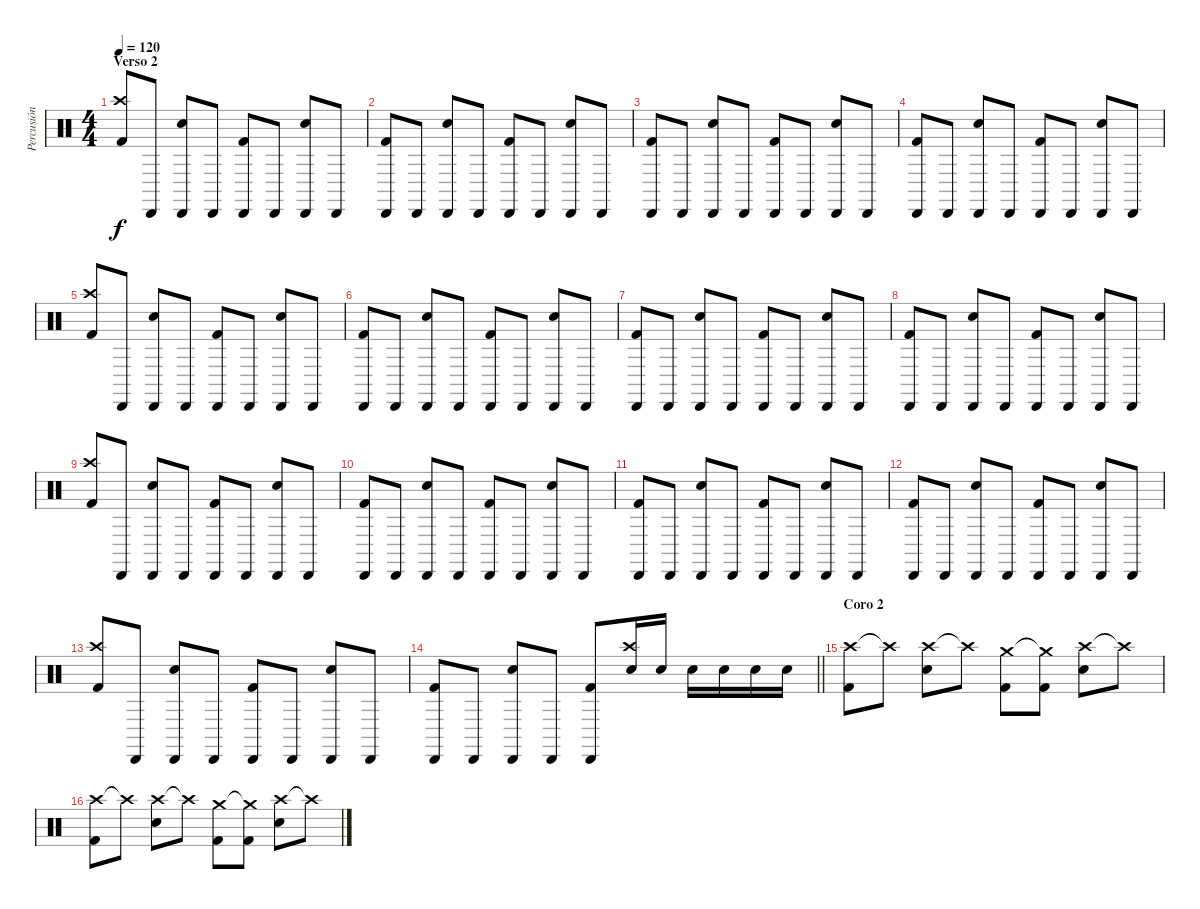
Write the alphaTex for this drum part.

\track ("Percusión" "Percusión") {instrument percussion}
\staff {score}
\articulation defaults
\ts (4 4)
\section ("" "Verso 2")
\tempo 120
\clef neutral
\ks c
("Crash high (hit)" "Kick (hit) 2").8{dy f} "Cabasa (hit)".8 ("Cabasa (hit)" "Snare (hit) 2").8 "Cabasa (hit)".8 ("Cabasa (hit)" "Kick (hit) 2").8 "Cabasa (hit)".8 ("Cabasa (hit)" "Snare (hit) 2").8 "Cabasa (hit)".8 |
("Cabasa (hit)" "Kick (hit) 2").8 "Cabasa (hit)".8 ("Cabasa (hit)" "Snare (hit) 2").8 "Cabasa (hit)".8 ("Cabasa (hit)" "Kick (hit) 2").8 "Cabasa (hit)".8 ("Cabasa (hit)" "Snare (hit) 2").8 "Cabasa (hit)".8 |
("Cabasa (hit)" "Kick (hit) 2").8 "Cabasa (hit)".8 ("Cabasa (hit)" "Snare (hit) 2").8 "Cabasa (hit)".8 ("Cabasa (hit)" "Kick (hit) 2").8 "Cabasa (hit)".8 ("Cabasa (hit)" "Snare (hit) 2").8 "Cabasa (hit)".8 |
("Cabasa (hit)" "Kick (hit) 2").8 "Cabasa (hit)".8 ("Cabasa (hit)" "Snare (hit) 2").8 "Cabasa (hit)".8 ("Cabasa (hit)" "Kick (hit) 2").8 "Cabasa (hit)".8 ("Cabasa (hit)" "Snare (hit) 2").8 "Cabasa (hit)".8 |
("Crash high (hit)" "Kick (hit) 2").8 "Cabasa (hit)".8 ("Cabasa (hit)" "Snare (hit) 2").8 "Cabasa (hit)".8 ("Cabasa (hit)" "Kick (hit) 2").8 "Cabasa (hit)".8 ("Cabasa (hit)" "Snare (hit) 2").8 "Cabasa (hit)".8 |
("Cabasa (hit)" "Kick (hit) 2").8 "Cabasa (hit)".8 ("Cabasa (hit)" "Snare (hit) 2").8 "Cabasa (hit)".8 ("Cabasa (hit)" "Kick (hit) 2").8 "Cabasa (hit)".8 ("Cabasa (hit)" "Snare (hit) 2").8 "Cabasa (hit)".8 |
("Cabasa (hit)" "Kick (hit) 2").8 "Cabasa (hit)".8 ("Cabasa (hit)" "Snare (hit) 2").8 "Cabasa (hit)".8 ("Cabasa (hit)" "Kick (hit) 2").8 "Cabasa (hit)".8 ("Cabasa (hit)" "Snare (hit) 2").8 "Cabasa (hit)".8 |
("Cabasa (hit)" "Kick (hit) 2").8 "Cabasa (hit)".8 ("Cabasa (hit)" "Snare (hit) 2").8 "Cabasa (hit)".8 ("Cabasa (hit)" "Kick (hit) 2").8 "Cabasa (hit)".8 ("Cabasa (hit)" "Snare (hit) 2").8 "Cabasa (hit)".8 |
("Crash high (hit)" "Kick (hit) 2").8 "Cabasa (hit)".8 ("Cabasa (hit)" "Snare (hit) 2").8 "Cabasa (hit)".8 ("Cabasa (hit)" "Kick (hit) 2").8 "Cabasa (hit)".8 ("Cabasa (hit)" "Snare (hit) 2").8 "Cabasa (hit)".8 |
("Cabasa (hit)" "Kick (hit) 2").8 "Cabasa (hit)".8 ("Cabasa (hit)" "Snare (hit) 2").8 "Cabasa (hit)".8 ("Cabasa (hit)" "Kick (hit) 2").8 "Cabasa (hit)".8 ("Cabasa (hit)" "Snare (hit) 2").8 "Cabasa (hit)".8 |
("Cabasa (hit)" "Kick (hit) 2").8 "Cabasa (hit)".8 ("Cabasa (hit)" "Snare (hit) 2").8 "Cabasa (hit)".8 ("Cabasa (hit)" "Kick (hit) 2").8 "Cabasa (hit)".8 ("Cabasa (hit)" "Snare (hit) 2").8 "Cabasa (hit)".8 |
("Cabasa (hit)" "Kick (hit) 2").8 "Cabasa (hit)".8 ("Cabasa (hit)" "Snare (hit) 2").8 "Cabasa (hit)".8 ("Cabasa (hit)" "Kick (hit) 2").8 "Cabasa (hit)".8 ("Cabasa (hit)" "Snare (hit) 2").8 "Cabasa (hit)".8 |
("Crash high (hit)" "Kick (hit) 2").8 "Cabasa (hit)".8 ("Cabasa (hit)" "Snare (hit) 2").8 "Cabasa (hit)".8 ("Cabasa (hit)" "Kick (hit) 2").8 "Cabasa (hit)".8 ("Cabasa (hit)" "Snare (hit) 2").8 "Cabasa (hit)".8 |
\barLineRight lightlight
("Cabasa (hit)" "Kick (hit) 2").8 "Cabasa (hit)".8 ("Cabasa (hit)" "Snare (hit) 2").8 "Cabasa (hit)".8 ("Cabasa (hit)" "Kick (hit) 2").8 ("Crash high (hit)" "Snare (hit) 2").16 "Snare (hit) 2".16 "Snare (hit) 2".16 "Snare (hit) 2".16 "Snare (hit) 2".16 "Snare (hit) 2".16 |
\section ("" "Coro 2")
("Crash high (hit)" "Kick (hit) 2").8 "Crash high (hit)"{t}.8 ("Crash high (hit)" "Snare (hit) 2").8 "Crash high (hit)"{t}.8 ("Crash medium (hit)" "Kick (hit) 2").8 ("Crash medium (hit)"{t} "Kick (hit) 2").8 ("Crash high (hit)" "Snare (hit) 2").8 "Crash high (hit)"{t}.8 |
("Crash high (hit)" "Kick (hit) 2").8 "Crash high (hit)"{t}.8 ("Crash high (hit)" "Snare (hit) 2").8 "Crash high (hit)"{t}.8 ("Crash medium (hit)" "Kick (hit) 2").8 ("Crash medium (hit)"{t} "Kick (hit) 2").8 ("Crash high (hit)" "Snare (hit) 2").8 "Crash high (hit)"{t}.8
